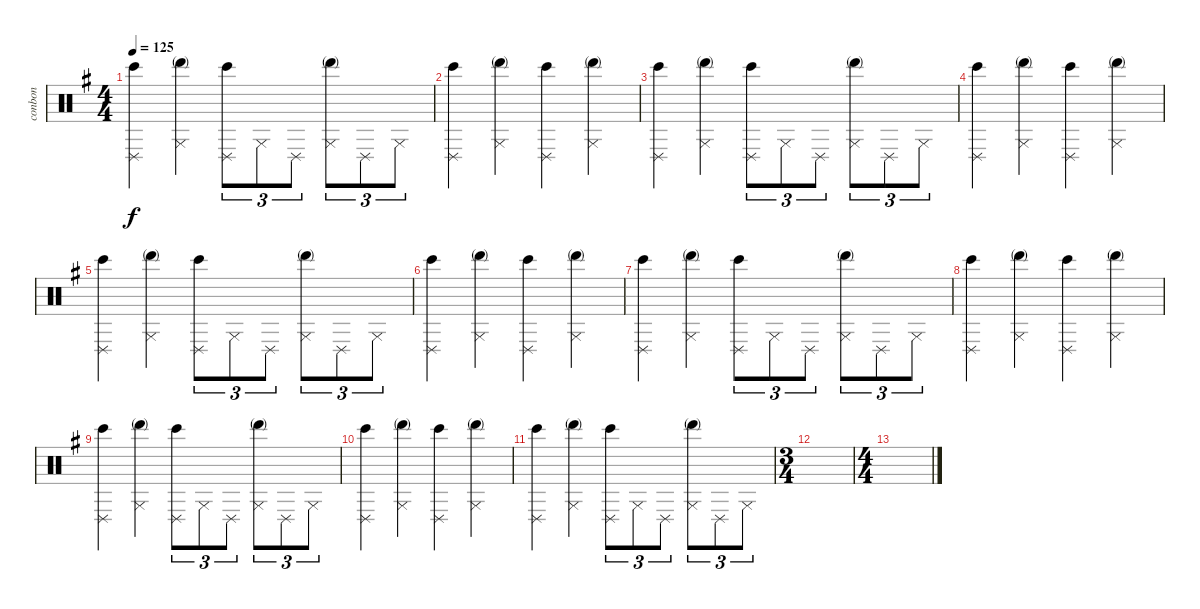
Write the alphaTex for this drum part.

\defaultSystemsLayout 4
\bracketExtendMode groupsimilarinstruments
\otherSystemsTrackNameOrientation horizontal
\track ("Bongos N Congas" "conbon") {instrument percussion}
\staff {score}
\articulation defaults
\ts (4 4)
\tempo 125
\clef neutral
\scale
0.333333
\ks g
("Conga low (slap)"{acc forcenatural} "Bongo High (hit)"{acc forcenatural}).4{dy f beam Down} ("Conga high (slap)"{acc forcenatural} "Hand (mute)"{acc forcenatural}).4{beam Down} ("Conga low (slap)"{acc forcenatural} "Bongo High (hit)"{acc forcenatural}).8{tu (3 2) beam Down} "Conga high (slap)"{acc forcenatural}.8{tu (3 2) beam Down} "Conga low (slap)"{acc forcenatural}.8{tu (3 2) beam Down} ("Conga high (slap)"{acc forcenatural} "Hand (mute)"{acc forcenatural}).8{tu (3 2) beam Down} "Conga low (slap)"{acc forcenatural}.8{tu (3 2) beam Down} "Conga high (slap)"{acc forcenatural}.8{tu (3 2) beam Down} |
\scale
0.333333 ("Conga low (slap)"{acc forcenatural} "Bongo High (hit)"{acc forcenatural}).4{beam Down} ("Conga high (slap)"{acc forcenatural} "Hand (mute)"{acc forcenatural}).4{beam Down} ("Conga low (slap)"{acc forcenatural} "Bongo High (hit)"{acc forcenatural}).4{beam Down} ("Conga high (slap)"{acc forcenatural} "Hand (mute)"{acc forcenatural}).4{beam Down} |
\scale
0.333333 ("Conga low (slap)"{acc forcenatural} "Bongo High (hit)"{acc forcenatural}).4{beam Down} ("Conga high (slap)"{acc forcenatural} "Hand (mute)"{acc forcenatural}).4{beam Down} ("Conga low (slap)"{acc forcenatural} "Bongo High (hit)"{acc forcenatural}).8{tu (3 2) beam Down} "Conga high (slap)"{acc forcenatural}.8{tu (3 2) beam Down} "Conga low (slap)"{acc forcenatural}.8{tu (3 2) beam Down} ("Conga high (slap)"{acc forcenatural} "Hand (mute)"{acc forcenatural}).8{tu (3 2) beam Down} "Conga low (slap)"{acc forcenatural}.8{tu (3 2) beam Down} "Conga high (slap)"{acc forcenatural}.8{tu (3 2) beam Down} |
\scale
0.333333 ("Conga low (slap)"{acc forcenatural} "Bongo High (hit)"{acc forcenatural}).4{beam Down} ("Conga high (slap)"{acc forcenatural} "Hand (mute)"{acc forcenatural}).4{beam Down} ("Conga low (slap)"{acc forcenatural} "Bongo High (hit)"{acc forcenatural}).4{beam Down} ("Conga high (slap)"{acc forcenatural} "Hand (mute)"{acc forcenatural}).4{beam Down} |
\scale
0.333333 ("Conga low (slap)"{acc forcenatural} "Bongo High (hit)"{acc forcenatural}).4{beam Down} ("Conga high (slap)"{acc forcenatural} "Hand (mute)"{acc forcenatural}).4{beam Down} ("Conga low (slap)"{acc forcenatural} "Bongo High (hit)"{acc forcenatural}).8{tu (3 2) beam Down} "Conga high (slap)"{acc forcenatural}.8{tu (3 2) beam Down} "Conga low (slap)"{acc forcenatural}.8{tu (3 2) beam Down} ("Conga high (slap)"{acc forcenatural} "Hand (mute)"{acc forcenatural}).8{tu (3 2) beam Down} "Conga low (slap)"{acc forcenatural}.8{tu (3 2) beam Down} "Conga high (slap)"{acc forcenatural}.8{tu (3 2) beam Down} |
\scale
0.333333 ("Conga low (slap)"{acc forcenatural} "Bongo High (hit)"{acc forcenatural}).4{beam Down} ("Conga high (slap)"{acc forcenatural} "Hand (mute)"{acc forcenatural}).4{beam Down} ("Conga low (slap)"{acc forcenatural} "Bongo High (hit)"{acc forcenatural}).4{beam Down} ("Conga high (slap)"{acc forcenatural} "Hand (mute)"{acc forcenatural}).4{beam Down} |
\scale
0.333333 ("Conga low (slap)"{acc forcenatural} "Bongo High (hit)"{acc forcenatural}).4{beam Down} ("Conga high (slap)"{acc forcenatural} "Hand (mute)"{acc forcenatural}).4{beam Down} ("Conga low (slap)"{acc forcenatural} "Bongo High (hit)"{acc forcenatural}).8{tu (3 2) beam Down} "Conga high (slap)"{acc forcenatural}.8{tu (3 2) beam Down} "Conga low (slap)"{acc forcenatural}.8{tu (3 2) beam Down} ("Conga high (slap)"{acc forcenatural} "Hand (mute)"{acc forcenatural}).8{tu (3 2) beam Down} "Conga low (slap)"{acc forcenatural}.8{tu (3 2) beam Down} "Conga high (slap)"{acc forcenatural}.8{tu (3 2) beam Down} |
\scale
0.333333 ("Conga low (slap)"{acc forcenatural} "Bongo High (hit)"{acc forcenatural}).4{beam Down} ("Conga high (slap)"{acc forcenatural} "Hand (mute)"{acc forcenatural}).4{beam Down} ("Conga low (slap)"{acc forcenatural} "Bongo High (hit)"{acc forcenatural}).4{beam Down} ("Conga high (slap)"{acc forcenatural} "Hand (mute)"{acc forcenatural}).4{beam Down} |
\scale
0.333333 ("Conga low (slap)"{acc forcenatural} "Bongo High (hit)"{acc forcenatural}).4{beam Down} ("Conga high (slap)"{acc forcenatural} "Hand (mute)"{acc forcenatural}).4{beam Down} ("Conga low (slap)"{acc forcenatural} "Bongo High (hit)"{acc forcenatural}).8{tu (3 2) beam Down} "Conga high (slap)"{acc forcenatural}.8{tu (3 2) beam Down} "Conga low (slap)"{acc forcenatural}.8{tu (3 2) beam Down} ("Conga high (slap)"{acc forcenatural} "Hand (mute)"{acc forcenatural}).8{tu (3 2) beam Down} "Conga low (slap)"{acc forcenatural}.8{tu (3 2) beam Down} "Conga high (slap)"{acc forcenatural}.8{tu (3 2) beam Down} |
\scale
0.262911 ("Conga low (slap)"{acc forcenatural} "Bongo High (hit)"{acc forcenatural}).4{beam Down} ("Conga high (slap)"{acc forcenatural} "Hand (mute)"{acc forcenatural}).4{beam Down} ("Conga low (slap)"{acc forcenatural} "Bongo High (hit)"{acc forcenatural}).4{beam Down} ("Conga high (slap)"{acc forcenatural} "Hand (mute)"{acc forcenatural}).4{beam Down} |
\scale
0.262911 ("Conga low (slap)"{acc forcenatural} "Bongo High (hit)"{acc forcenatural}).4{beam Down} ("Conga high (slap)"{acc forcenatural} "Hand (mute)"{acc forcenatural}).4{beam Down} ("Conga low (slap)"{acc forcenatural} "Bongo High (hit)"{acc forcenatural}).8{tu (3 2) beam Down} "Conga high (slap)"{acc forcenatural}.8{tu (3 2) beam Down} "Conga low (slap)"{acc forcenatural}.8{tu (3 2) beam Down} ("Conga high (slap)"{acc forcenatural} "Hand (mute)"{acc forcenatural}).8{tu (3 2) beam Down} "Conga low (slap)"{acc forcenatural}.8{tu (3 2) beam Down} "Conga high (slap)"{acc forcenatural}.8{tu (3 2) beam Down} |
\ts (3 4)
\scale
0.474178 |
\ts (4 4)
\scale
0.474178 |
\scale
0.262911 |
\scale
0.262911 |
\scale
0.333333
